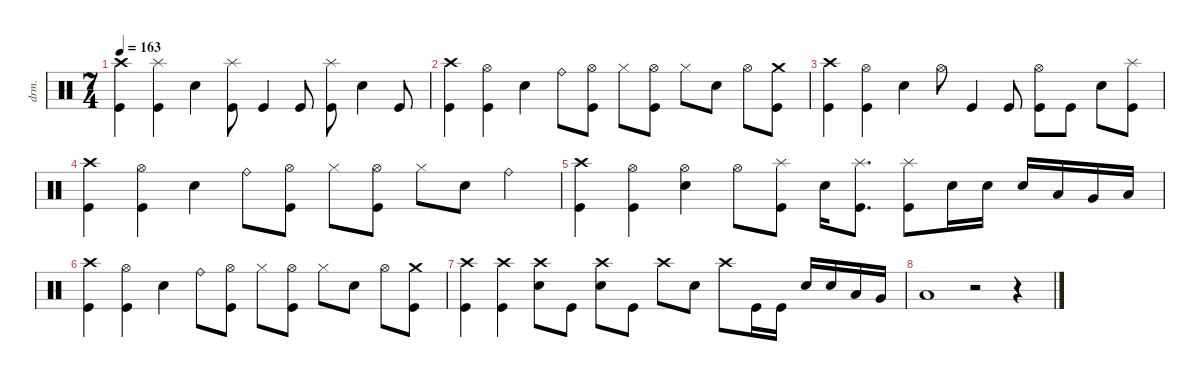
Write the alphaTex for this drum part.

\defaultSystemsLayout 4
\hideDynamics
\bracketExtendMode nobrackets
\otherSystemsTrackNameOrientation horizontal
\track ("Drums" "drm.") {instrument percussion}
\staff {score}
\articulation defaults
\ts (7 4)
\tempo 163
\clef neutral
\ks c
("Crash high (hit)" "Kick (hit)").4{dy f} ("Splash (hit)" "Kick (hit)").4 "Snare (hit) 2".4 ("Splash (hit)" "Kick (hit)").8 "Kick (hit)".4 "Kick (hit)".8 ("Splash (hit)" "Kick (hit)").8 "Snare (hit) 2".4 "Kick (hit)".8 |
("Crash high (hit)" "Kick (hit)").4 ("Hi-Hat (open)" "Kick (hit)").4 "Snare (hit) 2".4 "Ride (bell)".8 ("Hi-Hat (open)" "Kick (hit)").8 "Hi-Hat (closed)".8 ("Hi-Hat (open)" "Kick (hit)").8 "Hi-Hat (closed)".8 "Snare (hit) 2".8 "Hi-Hat (open)".8 ("Crash medium (hit)" "Kick (hit)").8 |
("Crash high (hit)" "Kick (hit)").4 ("Hi-Hat (open)" "Kick (hit)").4 "Snare (hit) 2".4 "Hi-Hat (open)".8 "Kick (hit)".4 "Kick (hit)".8 ("Hi-Hat (open)" "Kick (hit)").8 "Kick (hit)".8 "Snare (hit) 2".8 ("Splash (hit)" "Kick (hit)").8 |
("Crash high (hit)" "Kick (hit)").4 ("Hi-Hat (open)" "Kick (hit)").4 "Snare (hit) 2".4 "Ride (bell)".8 ("Hi-Hat (open)" "Kick (hit)").8 "Hi-Hat (closed)".8 ("Hi-Hat (open)" "Kick (hit)").8 "Hi-Hat (closed)".8 "Snare (hit) 2".8 "Ride (bell)".4 |
("Crash high (hit)" "Kick (hit)").4 ("Hi-Hat (open)" "Kick (hit)").4 ("Hi-Hat (open)" "Snare (hit) 2").4 "Hi-Hat (open)".8 ("Splash (hit)" "Kick (hit)").8 "Snare (hit) 2".16 ("Splash (hit)" "Kick (hit)").8{d} ("Splash (hit)" "Kick (hit)").8 "Snare (hit) 2".16 "Snare (hit) 2".16 "Snare (hit) 2".16 "Low Tom (hit)".16 "Very Low Tom (hit)".16 "Low Floor Tom (hit)".16 |
("Crash high (hit)" "Kick (hit)").4 ("Hi-Hat (open)" "Kick (hit)").4 "Snare (hit) 2".4 "Ride (bell)".8 ("Hi-Hat (open)" "Kick (hit)").8 "Hi-Hat (closed)".8 ("Hi-Hat (open)" "Kick (hit)").8 "Hi-Hat (closed)".8 "Snare (hit) 2".8 "Hi-Hat (open)".8 ("Crash medium (hit)" "Kick (hit)").8 |
("Crash high (hit)" "Kick (hit)").4 ("Crash high (hit)" "Kick (hit)").4 ("Crash high (hit)" "Snare (hit) 2").8 "Kick (hit)".8 ("Crash high (hit)" "Snare (hit) 2").8 "Kick (hit)".8 "Crash high (hit)".8 "Snare (hit) 2".8 "Crash high (hit)".8 "Kick (hit)".16 "Kick (hit)".16 "Snare (hit) 2".16 "Snare (hit) 2".16 "Low Tom (hit)".16 "Very Low Tom (hit)".16 |
"Low Floor Tom (hit)".1 r.2 r.4
